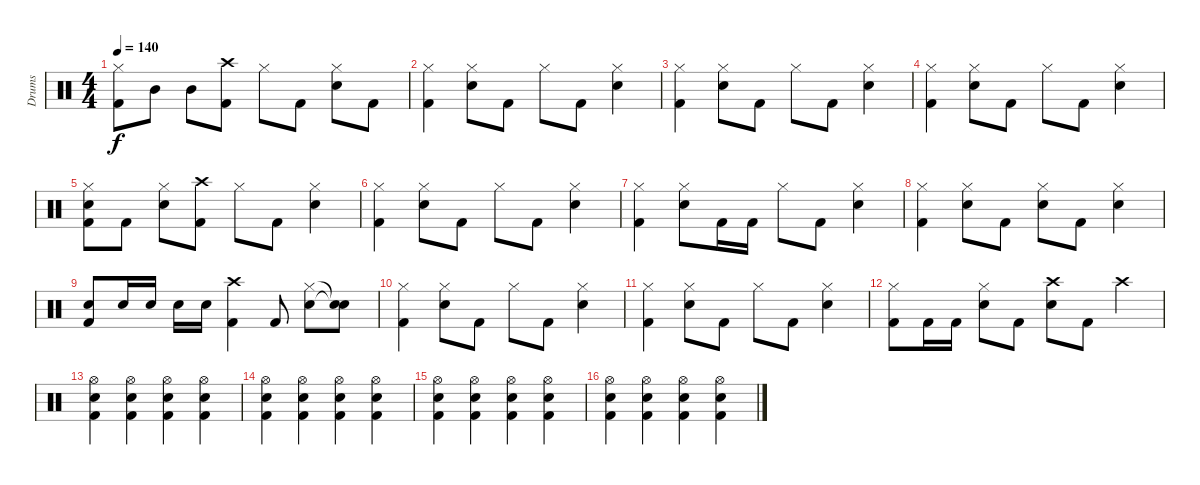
\track ("Drums" "Drums") {instrument percussion}
\staff {score}
\articulation defaults
\ts (4 4)
\tempo 140
\clef neutral
\ks c
("Hi-Hat (closed)" "Kick (hit) 2").8{dy f} "Mid Tom (hit)".8 "Mid Tom (hit)".8 ("Crash high (hit)" "Kick (hit) 2").8 "Hi-Hat (closed)".8 "Kick (hit) 2".8 ("Hi-Hat (closed)" "Snare (hit) 2").8 "Kick (hit) 2".8 |
("Hi-Hat (closed)" "Kick (hit) 2").4 ("Hi-Hat (closed)" "Snare (hit) 2").8 "Kick (hit) 2".8 "Hi-Hat (closed)".8 "Kick (hit) 2".8 ("Hi-Hat (closed)" "Snare (hit) 2").4 |
("Hi-Hat (closed)" "Kick (hit) 2").4 ("Hi-Hat (closed)" "Snare (hit) 2").8 "Kick (hit) 2".8 "Hi-Hat (closed)".8 "Kick (hit) 2".8 ("Hi-Hat (closed)" "Snare (hit) 2").4 |
("Hi-Hat (closed)" "Kick (hit) 2").4 ("Hi-Hat (closed)" "Snare (hit) 2").8 "Kick (hit) 2".8 "Hi-Hat (closed)".8 "Kick (hit) 2".8 ("Hi-Hat (closed)" "Snare (hit) 2").4 |
("Hi-Hat (closed)" "Snare (hit) 2" "Kick (hit) 2").8 "Kick (hit) 2".8 ("Hi-Hat (closed)" "Snare (hit) 2").8 ("Crash high (hit)" "Kick (hit) 2").8 "Hi-Hat (closed)".8 "Kick (hit) 2".8 ("Hi-Hat (closed)" "Snare (hit) 2").4 |
("Hi-Hat (closed)" "Kick (hit) 2").4 ("Hi-Hat (closed)" "Snare (hit) 2").8 "Kick (hit) 2".8 "Hi-Hat (closed)".8 "Kick (hit) 2".8 ("Hi-Hat (closed)" "Snare (hit) 2").4 |
("Hi-Hat (closed)" "Kick (hit) 2").4 ("Hi-Hat (closed)" "Snare (hit) 2").8 "Kick (hit) 2".16 "Kick (hit) 2".16 "Hi-Hat (closed)".8 "Kick (hit) 2".8 ("Hi-Hat (closed)" "Snare (hit) 2").4 |
("Hi-Hat (closed)" "Kick (hit) 2").4 ("Hi-Hat (closed)" "Snare (hit) 2").8 "Kick (hit) 2".8 ("Hi-Hat (closed)" "Snare (hit) 2").8 "Kick (hit) 2".8 ("Hi-Hat (closed)" "Snare (hit) 2").4 |
("Snare (hit) 2" "Kick (hit) 2").8 "Snare (hit) 2".16 "Snare (hit) 2".16 "Snare (hit) 2".16 "Snare (hit) 2".16 ("Crash high (hit)" "Kick (hit) 2").4 "Kick (hit) 2".8 ("Hi-Hat (closed)" "Snare (hit) 2").8 ("Snare (hit)"{t} "Snare (hit)"{t}).8 |
("Hi-Hat (closed)" "Kick (hit) 2").4 ("Hi-Hat (closed)" "Snare (hit) 2").8 "Kick (hit) 2".8 "Hi-Hat (closed)".8 "Kick (hit) 2".8 ("Hi-Hat (closed)" "Snare (hit) 2").4 |
("Hi-Hat (closed)" "Kick (hit) 2").4 ("Hi-Hat (closed)" "Snare (hit) 2").8 "Kick (hit) 2".8 "Hi-Hat (closed)".8 "Kick (hit) 2".8 ("Hi-Hat (closed)" "Snare (hit) 2").4 |
("Hi-Hat (closed)" "Kick (hit) 2").8 "Kick (hit) 2".16 "Kick (hit) 2".16 ("Hi-Hat (closed)" "Snare (hit) 2").8 "Kick (hit) 2".8 ("Crash high (hit)" "Snare (hit) 2").8 "Kick (hit) 2".8 "Crash high (hit)".4 |
("Hi-Hat (open)" "Snare (hit) 2" "Kick (hit) 2").4 ("Hi-Hat (open)" "Snare (hit) 2" "Kick (hit) 2").4 ("Hi-Hat (open)" "Snare (hit) 2" "Kick (hit) 2").4 ("Hi-Hat (open)" "Snare (hit) 2" "Kick (hit) 2").4 |
("Hi-Hat (open)" "Snare (hit) 2" "Kick (hit) 2").4 ("Hi-Hat (open)" "Snare (hit) 2" "Kick (hit) 2").4 ("Hi-Hat (open)" "Snare (hit) 2" "Kick (hit) 2").4 ("Hi-Hat (open)" "Snare (hit) 2" "Kick (hit) 2").4 |
("Hi-Hat (open)" "Snare (hit) 2" "Kick (hit) 2").4 ("Hi-Hat (open)" "Snare (hit) 2" "Kick (hit) 2").4 ("Hi-Hat (open)" "Snare (hit) 2" "Kick (hit) 2").4 ("Hi-Hat (open)" "Snare (hit) 2" "Kick (hit) 2").4 |
("Hi-Hat (open)" "Snare (hit) 2" "Kick (hit) 2").4 ("Hi-Hat (open)" "Snare (hit) 2" "Kick (hit) 2").4 ("Hi-Hat (open)" "Snare (hit) 2" "Kick (hit) 2").4 ("Hi-Hat (open)" "Snare (hit) 2" "Kick (hit) 2").4
